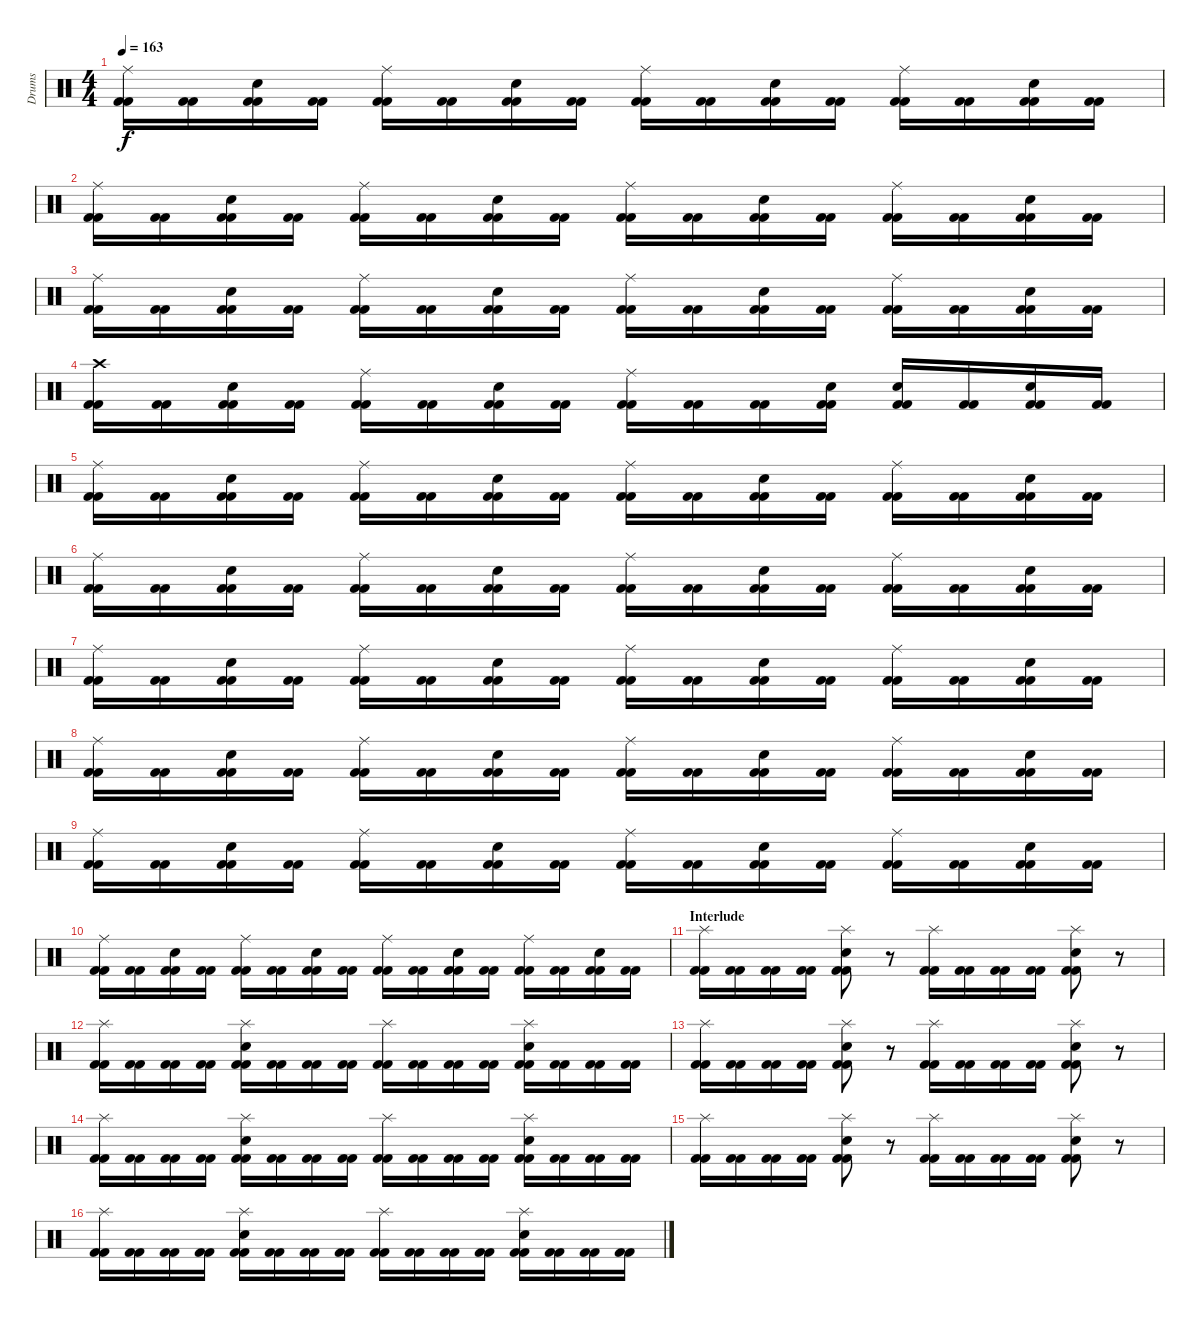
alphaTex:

\track ("Drums" "Drums") {instrument percussion}
\staff {score}
\articulation defaults
\ts (4 4)
\tempo 163
\clef neutral
\ks c
("Kick (hit) 2" "Kick (hit) 2" "Ride (middle)").16{dy f} ("Kick (hit) 2" "Kick (hit) 2").16 ("Kick (hit) 2" "Kick (hit) 2" "Snare (hit) 2").16 ("Kick (hit) 2" "Kick (hit) 2").16 ("Kick (hit) 2" "Kick (hit) 2" "Ride (middle)").16 ("Kick (hit) 2" "Kick (hit) 2").16 ("Kick (hit) 2" "Kick (hit) 2" "Snare (hit) 2").16 ("Kick (hit) 2" "Kick (hit) 2").16 ("Kick (hit) 2" "Kick (hit) 2" "Ride (middle)").16 ("Kick (hit) 2" "Kick (hit) 2").16 ("Kick (hit) 2" "Kick (hit) 2" "Snare (hit) 2").16 ("Kick (hit) 2" "Kick (hit) 2").16 ("Kick (hit) 2" "Kick (hit) 2" "Ride (middle)").16 ("Kick (hit) 2" "Kick (hit) 2").16 ("Kick (hit) 2" "Kick (hit) 2" "Snare (hit) 2").16 ("Kick (hit) 2" "Kick (hit) 2").16 |
("Kick (hit) 2" "Kick (hit) 2" "Ride (middle)").16 ("Kick (hit) 2" "Kick (hit) 2").16 ("Kick (hit) 2" "Kick (hit) 2" "Snare (hit) 2").16 ("Kick (hit) 2" "Kick (hit) 2").16 ("Kick (hit) 2" "Kick (hit) 2" "Ride (middle)").16 ("Kick (hit) 2" "Kick (hit) 2").16 ("Kick (hit) 2" "Kick (hit) 2" "Snare (hit) 2").16 ("Kick (hit) 2" "Kick (hit) 2").16 ("Kick (hit) 2" "Kick (hit) 2" "Ride (middle)").16 ("Kick (hit) 2" "Kick (hit) 2").16 ("Kick (hit) 2" "Kick (hit) 2" "Snare (hit) 2").16 ("Kick (hit) 2" "Kick (hit) 2").16 ("Kick (hit) 2" "Kick (hit) 2" "Ride (middle)").16 ("Kick (hit) 2" "Kick (hit) 2").16 ("Kick (hit) 2" "Kick (hit) 2" "Snare (hit) 2").16 ("Kick (hit) 2" "Kick (hit) 2").16 |
("Kick (hit) 2" "Kick (hit) 2" "Ride (middle)").16 ("Kick (hit) 2" "Kick (hit) 2").16 ("Kick (hit) 2" "Kick (hit) 2" "Snare (hit) 2").16 ("Kick (hit) 2" "Kick (hit) 2").16 ("Kick (hit) 2" "Kick (hit) 2" "Ride (middle)").16 ("Kick (hit) 2" "Kick (hit) 2").16 ("Kick (hit) 2" "Kick (hit) 2" "Snare (hit) 2").16 ("Kick (hit) 2" "Kick (hit) 2").16 ("Kick (hit) 2" "Kick (hit) 2" "Ride (middle)").16 ("Kick (hit) 2" "Kick (hit) 2").16 ("Kick (hit) 2" "Kick (hit) 2" "Snare (hit) 2").16 ("Kick (hit) 2" "Kick (hit) 2").16 ("Kick (hit) 2" "Kick (hit) 2" "Ride (middle)").16 ("Kick (hit) 2" "Kick (hit) 2").16 ("Kick (hit) 2" "Kick (hit) 2" "Snare (hit) 2").16 ("Kick (hit) 2" "Kick (hit) 2").16 |
("Kick (hit) 2" "Kick (hit) 2" "Crash high (hit)").16 ("Kick (hit) 2" "Kick (hit) 2").16 ("Kick (hit) 2" "Kick (hit) 2" "Snare (hit) 2").16 ("Kick (hit) 2" "Kick (hit) 2").16 ("Kick (hit) 2" "Kick (hit) 2" "Ride (middle)").16 ("Kick (hit) 2" "Kick (hit) 2").16 ("Kick (hit) 2" "Kick (hit) 2" "Snare (hit) 2").16 ("Kick (hit) 2" "Kick (hit) 2").16 ("Kick (hit) 2" "Kick (hit) 2" "Ride (middle)").16 ("Kick (hit) 2" "Kick (hit) 2").16 ("Kick (hit) 2" "Kick (hit) 2").16 ("Kick (hit) 2" "Kick (hit) 2" "Snare (hit) 2").16 ("Kick (hit) 2" "Kick (hit) 2" "Snare (hit) 2").16 ("Kick (hit) 2" "Kick (hit) 2").16 ("Kick (hit) 2" "Kick (hit) 2" "Snare (hit) 2").16 ("Kick (hit) 2" "Kick (hit) 2").16 |
("Kick (hit) 2" "Kick (hit) 2" "Ride (middle)").16 ("Kick (hit) 2" "Kick (hit) 2").16 ("Kick (hit) 2" "Kick (hit) 2" "Snare (hit) 2").16 ("Kick (hit) 2" "Kick (hit) 2").16 ("Kick (hit) 2" "Kick (hit) 2" "Ride (middle)").16 ("Kick (hit) 2" "Kick (hit) 2").16 ("Kick (hit) 2" "Kick (hit) 2" "Snare (hit) 2").16 ("Kick (hit) 2" "Kick (hit) 2").16 ("Kick (hit) 2" "Kick (hit) 2" "Ride (middle)").16 ("Kick (hit) 2" "Kick (hit) 2").16 ("Kick (hit) 2" "Kick (hit) 2" "Snare (hit) 2").16 ("Kick (hit) 2" "Kick (hit) 2").16 ("Kick (hit) 2" "Kick (hit) 2" "Ride (middle)").16 ("Kick (hit) 2" "Kick (hit) 2").16 ("Kick (hit) 2" "Kick (hit) 2" "Snare (hit) 2").16 ("Kick (hit) 2" "Kick (hit) 2").16 |
("Kick (hit) 2" "Kick (hit) 2" "Ride (middle)").16 ("Kick (hit) 2" "Kick (hit) 2").16 ("Kick (hit) 2" "Kick (hit) 2" "Snare (hit) 2").16 ("Kick (hit) 2" "Kick (hit) 2").16 ("Kick (hit) 2" "Kick (hit) 2" "Ride (middle)").16 ("Kick (hit) 2" "Kick (hit) 2").16 ("Kick (hit) 2" "Kick (hit) 2" "Snare (hit) 2").16 ("Kick (hit) 2" "Kick (hit) 2").16 ("Kick (hit) 2" "Kick (hit) 2" "Ride (middle)").16 ("Kick (hit) 2" "Kick (hit) 2").16 ("Kick (hit) 2" "Kick (hit) 2" "Snare (hit) 2").16 ("Kick (hit) 2" "Kick (hit) 2").16 ("Kick (hit) 2" "Kick (hit) 2" "Ride (middle)").16 ("Kick (hit) 2" "Kick (hit) 2").16 ("Kick (hit) 2" "Kick (hit) 2" "Snare (hit) 2").16 ("Kick (hit) 2" "Kick (hit) 2").16 |
("Kick (hit) 2" "Kick (hit) 2" "Ride (middle)").16 ("Kick (hit) 2" "Kick (hit) 2").16 ("Kick (hit) 2" "Kick (hit) 2" "Snare (hit) 2").16 ("Kick (hit) 2" "Kick (hit) 2").16 ("Kick (hit) 2" "Kick (hit) 2" "Ride (middle)").16 ("Kick (hit) 2" "Kick (hit) 2").16 ("Kick (hit) 2" "Kick (hit) 2" "Snare (hit) 2").16 ("Kick (hit) 2" "Kick (hit) 2").16 ("Kick (hit) 2" "Kick (hit) 2" "Ride (middle)").16 ("Kick (hit) 2" "Kick (hit) 2").16 ("Kick (hit) 2" "Kick (hit) 2" "Snare (hit) 2").16 ("Kick (hit) 2" "Kick (hit) 2").16 ("Kick (hit) 2" "Kick (hit) 2" "Ride (middle)").16 ("Kick (hit) 2" "Kick (hit) 2").16 ("Kick (hit) 2" "Kick (hit) 2" "Snare (hit) 2").16 ("Kick (hit) 2" "Kick (hit) 2").16 |
("Kick (hit) 2" "Kick (hit) 2" "Ride (middle)").16 ("Kick (hit) 2" "Kick (hit) 2").16 ("Kick (hit) 2" "Kick (hit) 2" "Snare (hit) 2").16 ("Kick (hit) 2" "Kick (hit) 2").16 ("Kick (hit) 2" "Kick (hit) 2" "Ride (middle)").16 ("Kick (hit) 2" "Kick (hit) 2").16 ("Kick (hit) 2" "Kick (hit) 2" "Snare (hit) 2").16 ("Kick (hit) 2" "Kick (hit) 2").16 ("Kick (hit) 2" "Kick (hit) 2" "Ride (middle)").16 ("Kick (hit) 2" "Kick (hit) 2").16 ("Kick (hit) 2" "Kick (hit) 2" "Snare (hit) 2").16 ("Kick (hit) 2" "Kick (hit) 2").16 ("Kick (hit) 2" "Kick (hit) 2" "Ride (middle)").16 ("Kick (hit) 2" "Kick (hit) 2").16 ("Kick (hit) 2" "Kick (hit) 2" "Snare (hit) 2").16 ("Kick (hit) 2" "Kick (hit) 2").16 |
("Kick (hit) 2" "Kick (hit) 2" "Ride (middle)").16 ("Kick (hit) 2" "Kick (hit) 2").16 ("Kick (hit) 2" "Kick (hit) 2" "Snare (hit) 2").16 ("Kick (hit) 2" "Kick (hit) 2").16 ("Kick (hit) 2" "Kick (hit) 2" "Ride (middle)").16 ("Kick (hit) 2" "Kick (hit) 2").16 ("Kick (hit) 2" "Kick (hit) 2" "Snare (hit) 2").16 ("Kick (hit) 2" "Kick (hit) 2").16 ("Kick (hit) 2" "Kick (hit) 2" "Ride (middle)").16 ("Kick (hit) 2" "Kick (hit) 2").16 ("Kick (hit) 2" "Kick (hit) 2" "Snare (hit) 2").16 ("Kick (hit) 2" "Kick (hit) 2").16 ("Kick (hit) 2" "Kick (hit) 2" "Ride (middle)").16 ("Kick (hit) 2" "Kick (hit) 2").16 ("Kick (hit) 2" "Kick (hit) 2" "Snare (hit) 2").16 ("Kick (hit) 2" "Kick (hit) 2").16 |
("Kick (hit) 2" "Kick (hit) 2" "Ride (middle)").16 ("Kick (hit) 2" "Kick (hit) 2").16 ("Kick (hit) 2" "Kick (hit) 2" "Snare (hit) 2").16 ("Kick (hit) 2" "Kick (hit) 2").16 ("Kick (hit) 2" "Kick (hit) 2" "Ride (middle)").16 ("Kick (hit) 2" "Kick (hit) 2").16 ("Kick (hit) 2" "Kick (hit) 2" "Snare (hit) 2").16 ("Kick (hit) 2" "Kick (hit) 2").16 ("Kick (hit) 2" "Kick (hit) 2" "Ride (middle)").16 ("Kick (hit) 2" "Kick (hit) 2").16 ("Kick (hit) 2" "Kick (hit) 2" "Snare (hit) 2").16 ("Kick (hit) 2" "Kick (hit) 2").16 ("Kick (hit) 2" "Kick (hit) 2" "Ride (middle)").16 ("Kick (hit) 2" "Kick (hit) 2").16 ("Kick (hit) 2" "Kick (hit) 2" "Snare (hit) 2").16 ("Kick (hit) 2" "Kick (hit) 2").16 |
\section ("" "Interlude")
("Kick (hit) 2" "Kick (hit) 2" "Splash (hit)").16 ("Kick (hit) 2" "Kick (hit) 2").16 ("Kick (hit) 2" "Kick (hit) 2").16 ("Kick (hit) 2" "Kick (hit) 2").16 ("Kick (hit) 2" "Kick (hit) 2" "Snare (hit) 2" "Splash (hit)").8 r.8 ("Kick (hit) 2" "Kick (hit) 2" "Splash (hit)").16 ("Kick (hit) 2" "Kick (hit) 2").16 ("Kick (hit) 2" "Kick (hit) 2").16 ("Kick (hit) 2" "Kick (hit) 2").16 ("Kick (hit) 2" "Kick (hit) 2" "Snare (hit) 2" "Splash (hit)").8 r.8 |
("Kick (hit) 2" "Kick (hit) 2" "Splash (hit)").16 ("Kick (hit) 2" "Kick (hit) 2").16 ("Kick (hit) 2" "Kick (hit) 2").16 ("Kick (hit) 2" "Kick (hit) 2").16 ("Kick (hit) 2" "Kick (hit) 2" "Snare (hit) 2" "Splash (hit)").16 ("Kick (hit) 2" "Kick (hit) 2").16 ("Kick (hit) 2" "Kick (hit) 2").16 ("Kick (hit) 2" "Kick (hit) 2").16 ("Kick (hit) 2" "Kick (hit) 2" "Splash (hit)").16 ("Kick (hit) 2" "Kick (hit) 2").16 ("Kick (hit) 2" "Kick (hit) 2").16 ("Kick (hit) 2" "Kick (hit) 2").16 ("Kick (hit) 2" "Kick (hit) 2" "Snare (hit) 2" "Splash (hit)").16 ("Kick (hit) 2" "Kick (hit) 2").16 ("Kick (hit) 2" "Kick (hit) 2").16 ("Kick (hit) 2" "Kick (hit) 2").16 |
("Kick (hit) 2" "Kick (hit) 2" "Splash (hit)").16 ("Kick (hit) 2" "Kick (hit) 2").16 ("Kick (hit) 2" "Kick (hit) 2").16 ("Kick (hit) 2" "Kick (hit) 2").16 ("Kick (hit) 2" "Kick (hit) 2" "Snare (hit) 2" "Splash (hit)").8 r.8 ("Kick (hit) 2" "Kick (hit) 2" "Splash (hit)").16 ("Kick (hit) 2" "Kick (hit) 2").16 ("Kick (hit) 2" "Kick (hit) 2").16 ("Kick (hit) 2" "Kick (hit) 2").16 ("Kick (hit) 2" "Kick (hit) 2" "Snare (hit) 2" "Splash (hit)").8 r.8 |
("Kick (hit) 2" "Kick (hit) 2" "Splash (hit)").16 ("Kick (hit) 2" "Kick (hit) 2").16 ("Kick (hit) 2" "Kick (hit) 2").16 ("Kick (hit) 2" "Kick (hit) 2").16 ("Kick (hit) 2" "Kick (hit) 2" "Snare (hit) 2" "Splash (hit)").16 ("Kick (hit) 2" "Kick (hit) 2").16 ("Kick (hit) 2" "Kick (hit) 2").16 ("Kick (hit) 2" "Kick (hit) 2").16 ("Kick (hit) 2" "Kick (hit) 2" "Splash (hit)").16 ("Kick (hit) 2" "Kick (hit) 2").16 ("Kick (hit) 2" "Kick (hit) 2").16 ("Kick (hit) 2" "Kick (hit) 2").16 ("Kick (hit) 2" "Kick (hit) 2" "Snare (hit) 2" "Splash (hit)").16 ("Kick (hit) 2" "Kick (hit) 2").16 ("Kick (hit) 2" "Kick (hit) 2").16 ("Kick (hit) 2" "Kick (hit) 2").16 |
("Kick (hit) 2" "Kick (hit) 2" "Splash (hit)").16 ("Kick (hit) 2" "Kick (hit) 2").16 ("Kick (hit) 2" "Kick (hit) 2").16 ("Kick (hit) 2" "Kick (hit) 2").16 ("Kick (hit) 2" "Kick (hit) 2" "Snare (hit) 2" "Splash (hit)").8 r.8 ("Kick (hit) 2" "Kick (hit) 2" "Splash (hit)").16 ("Kick (hit) 2" "Kick (hit) 2").16 ("Kick (hit) 2" "Kick (hit) 2").16 ("Kick (hit) 2" "Kick (hit) 2").16 ("Kick (hit) 2" "Kick (hit) 2" "Snare (hit) 2" "Splash (hit)").8 r.8 |
("Kick (hit) 2" "Kick (hit) 2" "Splash (hit)").16 ("Kick (hit) 2" "Kick (hit) 2").16 ("Kick (hit) 2" "Kick (hit) 2").16 ("Kick (hit) 2" "Kick (hit) 2").16 ("Kick (hit) 2" "Kick (hit) 2" "Snare (hit) 2" "Splash (hit)").16 ("Kick (hit) 2" "Kick (hit) 2").16 ("Kick (hit) 2" "Kick (hit) 2").16 ("Kick (hit) 2" "Kick (hit) 2").16 ("Kick (hit) 2" "Kick (hit) 2" "Splash (hit)").16 ("Kick (hit) 2" "Kick (hit) 2").16 ("Kick (hit) 2" "Kick (hit) 2").16 ("Kick (hit) 2" "Kick (hit) 2").16 ("Kick (hit) 2" "Kick (hit) 2" "Snare (hit) 2" "Splash (hit)").16 ("Kick (hit) 2" "Kick (hit) 2").16 ("Kick (hit) 2" "Kick (hit) 2").16 ("Kick (hit) 2" "Kick (hit) 2").16
